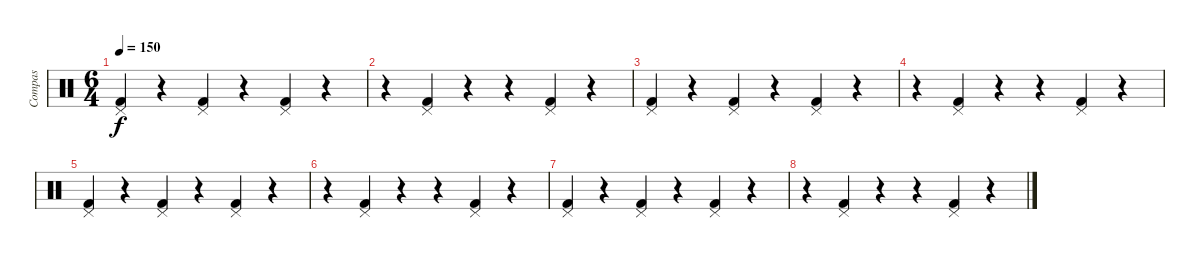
\track ("Compas" "Compas") {instrument percussion}
\staff {score}
\articulation defaults
\ts (6 4)
\tempo 150
\clef neutral
\ks c
("Kick (hit) 2" "Pedal Hi-Hat (hit)").4{dy f} r.4 ("Kick (hit) 2" "Pedal Hi-Hat (hit)").4 r.4 ("Kick (hit) 2" "Pedal Hi-Hat (hit)").4 r.4 |
r.4 ("Kick (hit) 2" "Pedal Hi-Hat (hit)").4 r.4 r.4 ("Kick (hit) 2" "Pedal Hi-Hat (hit)").4 r.4 |
("Kick (hit) 2" "Pedal Hi-Hat (hit)").4 r.4 ("Kick (hit) 2" "Pedal Hi-Hat (hit)").4 r.4 ("Kick (hit) 2" "Pedal Hi-Hat (hit)").4 r.4 |
r.4 ("Kick (hit) 2" "Pedal Hi-Hat (hit)").4 r.4 r.4 ("Kick (hit) 2" "Pedal Hi-Hat (hit)").4 r.4 |
("Kick (hit) 2" "Pedal Hi-Hat (hit)").4 r.4 ("Kick (hit) 2" "Pedal Hi-Hat (hit)").4 r.4 ("Kick (hit) 2" "Pedal Hi-Hat (hit)").4 r.4 |
r.4 ("Kick (hit) 2" "Pedal Hi-Hat (hit)").4 r.4 r.4 ("Kick (hit) 2" "Pedal Hi-Hat (hit)").4 r.4 |
("Kick (hit) 2" "Pedal Hi-Hat (hit)").4 r.4 ("Kick (hit) 2" "Pedal Hi-Hat (hit)").4 r.4 ("Kick (hit) 2" "Pedal Hi-Hat (hit)").4 r.4 |
r.4 ("Kick (hit) 2" "Pedal Hi-Hat (hit)").4 r.4 r.4 ("Kick (hit) 2" "Pedal Hi-Hat (hit)").4 r.4
